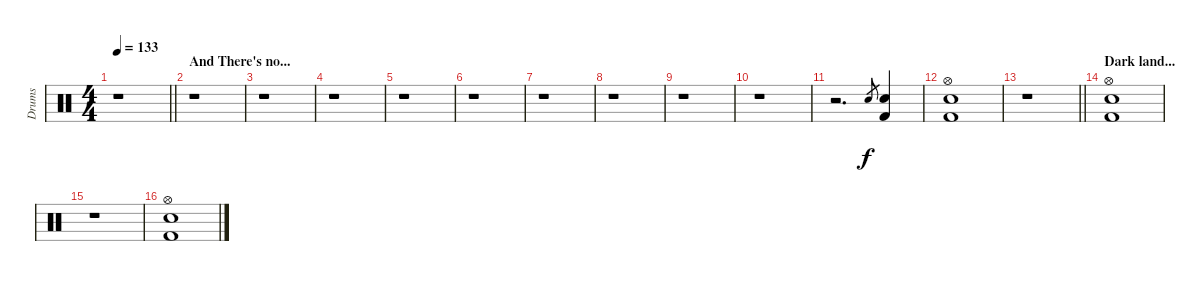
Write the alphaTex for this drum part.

\track ("Drums" "Drums") {instrument percussion}
\staff {score}
\articulation defaults
\ts (4 4)
\tempo 133
\clef neutral
\barLineRight lightlight
\ks c
r.1{dy f} |
\section ("" "And There's no...")
r.1 |
r.1 |
r.1 |
r.1 |
r.1 |
r.1 |
r.1 |
r.1 |
r.1 |
r.2{d} "Snare (hit) 2".8{gr} ("Snare (hit) 2" "Kick (hit) 2").4 |
("Hi-Hat (open)" "Snare (hit) 2" "Kick (hit) 2").1 |
\barLineRight lightlight
r.1 |
\section ("" "Dark land...")
("Hi-Hat (open)" "Snare (hit) 2" "Kick (hit) 2").1 |
r.1 |
("Hi-Hat (open)" "Snare (hit) 2" "Kick (hit) 2").1
